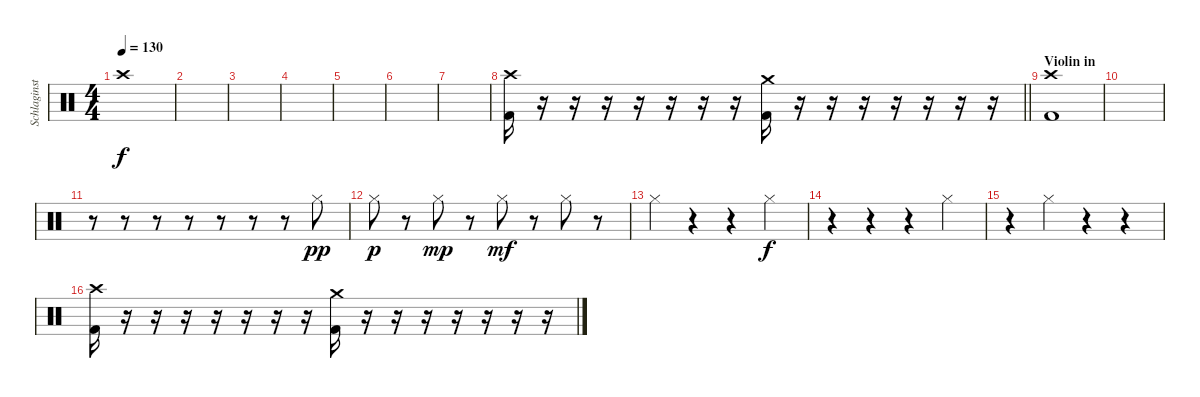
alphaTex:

\track ("Schlaginstrumente - Auswahl" "Schlaginst") {instrument percussion}
\staff {score}
\articulation defaults
\ts (4 4)
\tempo 130
\clef neutral
\ks c "Crash high (hit)".1{dy f}
|
|
|
|
|
|
|
\barLineRight lightlight
("Crash high (hit)" "Kick (hit) 2").16 r.16 r.16 r.16 r.16 r.16 r.16 r.16 ("Crash medium (hit)" "Kick (hit) 2").16 r.16 r.16 r.16 r.16 r.16 r.16 r.16 |
\section ("" "Violin in")
("Crash high (hit)" "Kick (hit) 2").1 |
|
r.8 r.8 r.8 r.8 r.8 r.8 r.8 "Hi-Hat (closed)".8{dy pp} |
"Hi-Hat (closed)".8{dy p} r.8 "Hi-Hat (closed)".8{dy mp} r.8 "Hi-Hat (closed)".8{dy mf} r.8 "Hi-Hat (closed)".8 r.8 |
"Hi-Hat (closed)".4 r.4 r.4 "Hi-Hat (closed)".4{dy f} |
r.4 r.4 r.4 "Hi-Hat (closed)".4 |
r.4 "Hi-Hat (closed)".4 r.4 r.4 |
("Crash high (hit)" "Kick (hit) 2").16 r.16 r.16 r.16 r.16 r.16 r.16 r.16 ("Crash medium (hit)" "Kick (hit) 2").16 r.16 r.16 r.16 r.16 r.16 r.16 r.16
